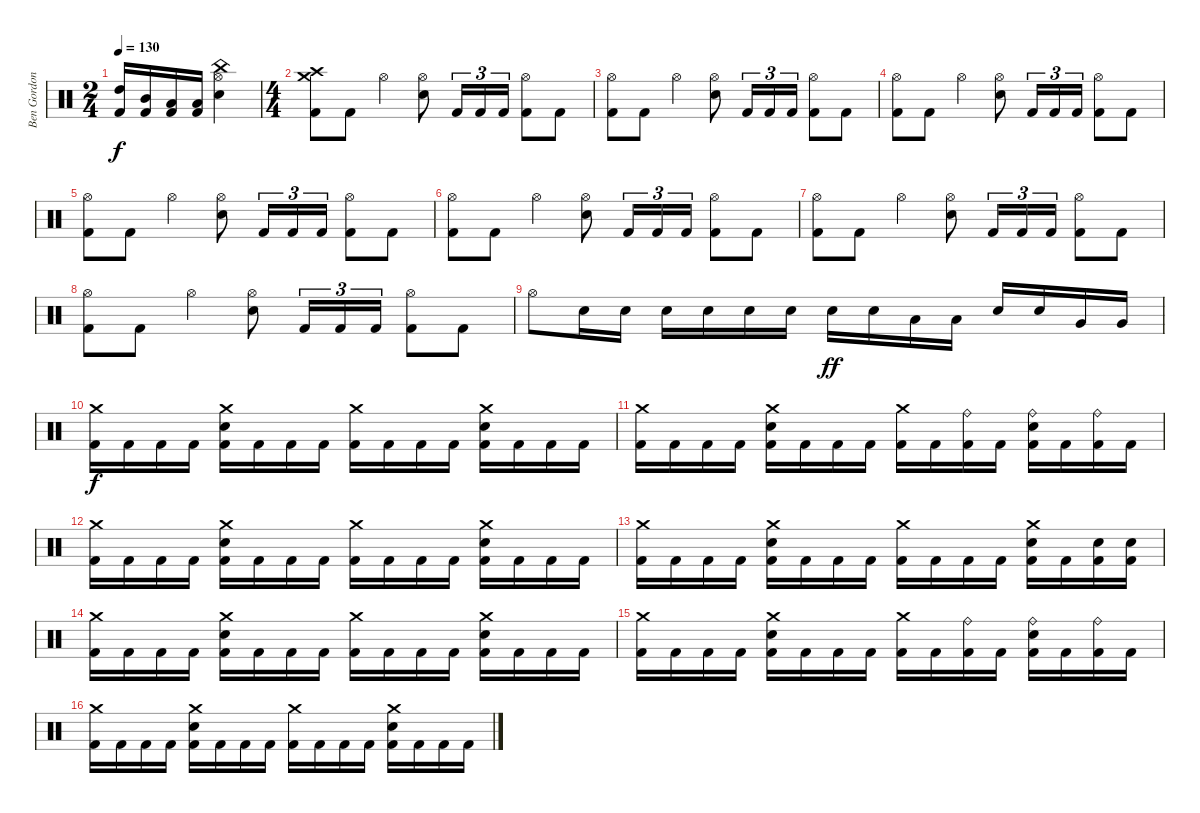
\track ("Ben Gordon" "Ben Gordon") {instrument percussion}
\staff {score}
\articulation defaults
\ts (2 4)
\tempo 130
\clef neutral
\ks c
("High Tom (hit)" "Kick (hit) 2").16{dy f} ("Mid Tom (hit)" "Kick (hit) 2").16 ("Low Tom (hit)" "Kick (hit) 2").16 ("Low Tom (hit)" "Kick (hit) 2").16 ("China (hit)" "Hi-Hat (open)" "Snare (hit) 2").4 |
\ts (4 4)
("Crash medium (hit)" "Crash high (hit)" "Kick (hit) 2").8 "Kick (hit) 2".8 "Hi-Hat (open)".4 ("Hi-Hat (open)" "Snare (hit) 2").8 "Kick (hit) 2".16{tu (3 2)} "Kick (hit) 2".16{tu (3 2)} "Kick (hit) 2".16{tu (3 2)} ("Hi-Hat (open)" "Kick (hit) 2").8 "Kick (hit) 2".8 |
("Hi-Hat (open)" "Kick (hit) 2").8 "Kick (hit) 2".8 "Hi-Hat (open)".4 ("Hi-Hat (open)" "Snare (hit) 2").8 "Kick (hit) 2".16{tu (3 2)} "Kick (hit) 2".16{tu (3 2)} "Kick (hit) 2".16{tu (3 2)} ("Hi-Hat (open)" "Kick (hit) 2").8 "Kick (hit) 2".8 |
("Hi-Hat (open)" "Kick (hit) 2").8 "Kick (hit) 2".8 "Hi-Hat (open)".4 ("Hi-Hat (open)" "Snare (hit) 2").8 "Kick (hit) 2".16{tu (3 2)} "Kick (hit) 2".16{tu (3 2)} "Kick (hit) 2".16{tu (3 2)} ("Hi-Hat (open)" "Kick (hit) 2").8 "Kick (hit) 2".8 |
("Hi-Hat (open)" "Kick (hit) 2").8 "Kick (hit) 2".8 "Hi-Hat (open)".4 ("Hi-Hat (open)" "Snare (hit) 2").8 "Kick (hit) 2".16{tu (3 2)} "Kick (hit) 2".16{tu (3 2)} "Kick (hit) 2".16{tu (3 2)} ("Hi-Hat (open)" "Kick (hit) 2").8 "Kick (hit) 2".8 |
("Hi-Hat (open)" "Kick (hit) 2").8 "Kick (hit) 2".8 "Hi-Hat (open)".4 ("Hi-Hat (open)" "Snare (hit) 2").8 "Kick (hit) 2".16{tu (3 2)} "Kick (hit) 2".16{tu (3 2)} "Kick (hit) 2".16{tu (3 2)} ("Hi-Hat (open)" "Kick (hit) 2").8 "Kick (hit) 2".8 |
("Hi-Hat (open)" "Kick (hit) 2").8 "Kick (hit) 2".8 "Hi-Hat (open)".4 ("Hi-Hat (open)" "Snare (hit) 2").8 "Kick (hit) 2".16{tu (3 2)} "Kick (hit) 2".16{tu (3 2)} "Kick (hit) 2".16{tu (3 2)} ("Hi-Hat (open)" "Kick (hit) 2").8 "Kick (hit) 2".8 |
("Hi-Hat (open)" "Kick (hit) 2").8 "Kick (hit) 2".8 "Hi-Hat (open)".4 ("Hi-Hat (open)" "Snare (hit) 2").8 "Kick (hit) 2".16{tu (3 2)} "Kick (hit) 2".16{tu (3 2)} "Kick (hit) 2".16{tu (3 2)} ("Hi-Hat (open)" "Kick (hit) 2").8 "Kick (hit) 2".8 |
"Hi-Hat (open)".8 "Snare (hit) 2".16 "Snare (hit) 2".16 "Snare (hit) 2".16 "Snare (hit) 2".16 "Snare (hit) 2".16 "Snare (hit) 2".16 "Snare (hit) 2".16{dy ff} "Snare (hit) 2".16 "Low Tom (hit)".16 "Low Tom (hit)".16 "Snare (hit) 2".16 "Snare (hit) 2".16 "Very Low Tom (hit)".16 "Very Low Tom (hit)".16 |
("Crash medium (hit)" "Kick (hit) 2").16{dy f volume 16} "Kick (hit) 2".16 "Kick (hit) 2".16 "Kick (hit) 2".16 ("Crash medium (hit)" "Snare (hit) 2" "Kick (hit) 2").16 "Kick (hit) 2".16 "Kick (hit) 2".16 "Kick (hit) 2".16 ("Crash medium (hit)" "Kick (hit) 2").16 "Kick (hit) 2".16 "Kick (hit) 2".16 "Kick (hit) 2".16 ("Crash medium (hit)" "Snare (hit) 2" "Kick (hit) 2").16 "Kick (hit) 2".16 "Kick (hit) 2".16 "Kick (hit) 2".16 |
("Crash medium (hit)" "Kick (hit) 2").16 "Kick (hit) 2".16 "Kick (hit) 2".16 "Kick (hit) 2".16 ("Crash medium (hit)" "Snare (hit) 2" "Kick (hit) 2").16 "Kick (hit) 2".16 "Kick (hit) 2".16 "Kick (hit) 2".16 ("Crash medium (hit)" "Kick (hit) 2").16 "Kick (hit) 2".16 ("Ride (bell)" "Kick (hit) 2").16 "Kick (hit) 2".16 ("Ride (bell)" "Snare (hit) 2" "Kick (hit) 2").16 "Kick (hit) 2".16 ("Ride (bell)" "Kick (hit) 2").16 "Kick (hit) 2".16 |
("Crash medium (hit)" "Kick (hit) 2").16 "Kick (hit) 2".16 "Kick (hit) 2".16 "Kick (hit) 2".16 ("Crash medium (hit)" "Snare (hit) 2" "Kick (hit) 2").16 "Kick (hit) 2".16 "Kick (hit) 2".16 "Kick (hit) 2".16 ("Crash medium (hit)" "Kick (hit) 2").16 "Kick (hit) 2".16 "Kick (hit) 2".16 "Kick (hit) 2".16 ("Crash medium (hit)" "Snare (hit) 2" "Kick (hit) 2").16 "Kick (hit) 2".16 "Kick (hit) 2".16 "Kick (hit) 2".16 |
("Crash medium (hit)" "Kick (hit) 2").16 "Kick (hit) 2".16 "Kick (hit) 2".16 "Kick (hit) 2".16 ("Crash medium (hit)" "Snare (hit) 2" "Kick (hit) 2").16 "Kick (hit) 2".16 "Kick (hit) 2".16 "Kick (hit) 2".16 ("Crash medium (hit)" "Kick (hit) 2").16 "Kick (hit) 2".16 "Kick (hit) 2".16 "Kick (hit) 2".16 ("Crash medium (hit)" "Snare (hit) 2" "Kick (hit) 2").16 "Kick (hit) 2".16 ("Snare (hit) 2" "Kick (hit) 2").16 ("Snare (hit) 2" "Kick (hit) 2").16 |
("Crash medium (hit)" "Kick (hit) 2").16 "Kick (hit) 2".16 "Kick (hit) 2".16 "Kick (hit) 2".16 ("Crash medium (hit)" "Snare (hit) 2" "Kick (hit) 2").16 "Kick (hit) 2".16 "Kick (hit) 2".16 "Kick (hit) 2".16 ("Crash medium (hit)" "Kick (hit) 2").16 "Kick (hit) 2".16 "Kick (hit) 2".16 "Kick (hit) 2".16 ("Crash medium (hit)" "Snare (hit) 2" "Kick (hit) 2").16 "Kick (hit) 2".16 "Kick (hit) 2".16 "Kick (hit) 2".16 |
("Crash medium (hit)" "Kick (hit) 2").16 "Kick (hit) 2".16 "Kick (hit) 2".16 "Kick (hit) 2".16 ("Crash medium (hit)" "Snare (hit) 2" "Kick (hit) 2").16 "Kick (hit) 2".16 "Kick (hit) 2".16 "Kick (hit) 2".16 ("Crash medium (hit)" "Kick (hit) 2").16 "Kick (hit) 2".16 ("Ride (bell)" "Kick (hit) 2").16 "Kick (hit) 2".16 ("Ride (bell)" "Snare (hit) 2" "Kick (hit) 2").16 "Kick (hit) 2".16 ("Ride (bell)" "Kick (hit) 2").16 "Kick (hit) 2".16 |
("Crash medium (hit)" "Kick (hit) 2").16 "Kick (hit) 2".16 "Kick (hit) 2".16 "Kick (hit) 2".16 ("Crash medium (hit)" "Snare (hit) 2" "Kick (hit) 2").16 "Kick (hit) 2".16 "Kick (hit) 2".16 "Kick (hit) 2".16 ("Crash medium (hit)" "Kick (hit) 2").16 "Kick (hit) 2".16 "Kick (hit) 2".16 "Kick (hit) 2".16 ("Crash medium (hit)" "Snare (hit) 2" "Kick (hit) 2").16 "Kick (hit) 2".16 "Kick (hit) 2".16 "Kick (hit) 2".16
